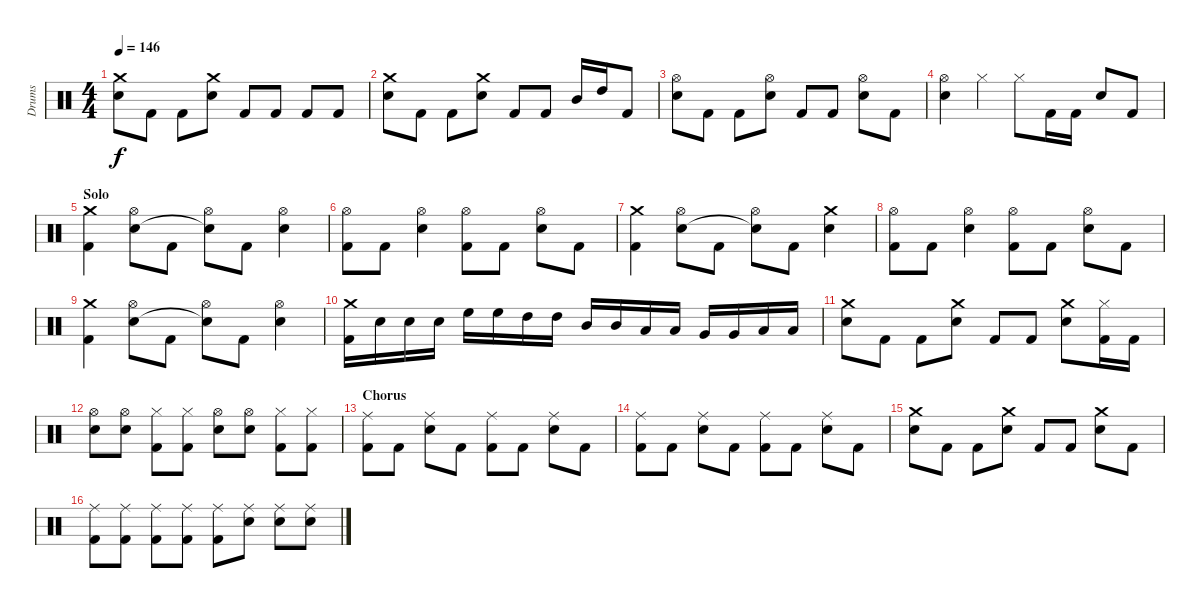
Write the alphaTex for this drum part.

\track ("Drums" "Drums") {instrument percussion}
\staff {score}
\articulation defaults
\ts (4 4)
\tempo 146
\clef neutral
\ks c
("Crash medium (hit)" "Electric Snare (hit)").8{dy f} "Kick (hit) 2".8 "Kick (hit) 2".8 ("Crash medium (hit)" "Electric Snare (hit)").8 "Kick (hit) 2".8 "Kick (hit) 2".8 "Kick (hit) 2".8 "Kick (hit) 2".8 |
("Crash medium (hit)" "Electric Snare (hit)").8 "Kick (hit) 2".8 "Kick (hit) 2".8 ("Crash medium (hit)" "Electric Snare (hit)").8 "Kick (hit) 2".8 "Kick (hit) 2".8 "Mid Tom (hit)".16 "High Tom (hit)".16 "Kick (hit) 2".8 |
("Hi-Hat (open)" "Electric Snare (hit)").8 "Kick (hit) 2".8 "Kick (hit) 2".8 ("Hi-Hat (open)" "Electric Snare (hit)").8 "Kick (hit) 2".8 "Kick (hit) 2".8 ("Hi-Hat (open)" "Electric Snare (hit)").8 "Kick (hit) 2".8 |
("Hi-Hat (open)" "Electric Snare (hit)").4 "Hi-Hat (closed)".4 "Hi-Hat (closed)".8 "Kick (hit) 2".16 "Kick (hit) 2".16 "Electric Snare (hit)".8 "Kick (hit) 2".8 |
\section ("" "Solo")
("Crash medium (hit)" "Kick (hit) 2").4 ("Hi-Hat (open)" "Electric Snare (hit)").8 "Kick (hit) 2".8 ("Hi-Hat (open)" "Snare (hit)"{t}).8 "Kick (hit) 2".8 ("Hi-Hat (open)" "Electric Snare (hit)").4 |
("Hi-Hat (open)" "Kick (hit) 2").8 "Kick (hit) 2".8 ("Hi-Hat (open)" "Electric Snare (hit)").4 ("Hi-Hat (open)" "Kick (hit) 2").8 "Kick (hit) 2".8 ("Hi-Hat (open)" "Electric Snare (hit)").8 "Kick (hit) 2".8 |
("Crash medium (hit)" "Kick (hit) 2").4 ("Hi-Hat (open)" "Electric Snare (hit)").8 "Kick (hit) 2".8 ("Hi-Hat (open)" "Snare (hit)"{t}).8 "Kick (hit) 2".8 ("Crash medium (hit)" "Electric Snare (hit)").4 |
("Hi-Hat (open)" "Kick (hit) 2").8 "Kick (hit) 2".8 ("Hi-Hat (open)" "Electric Snare (hit)").4 ("Hi-Hat (open)" "Kick (hit) 2").8 "Kick (hit) 2".8 ("Hi-Hat (open)" "Electric Snare (hit)").8 "Kick (hit) 2".8 |
("Crash medium (hit)" "Kick (hit) 2").4 ("Hi-Hat (open)" "Electric Snare (hit)").8 "Kick (hit) 2".8 ("Hi-Hat (open)" "Snare (hit)"{t}).8 "Kick (hit) 2".8 ("Hi-Hat (open)" "Electric Snare (hit)").4 |
("Crash medium (hit)" "Kick (hit) 2").16 "Electric Snare (hit)".16 "Electric Snare (hit)".16 "Electric Snare (hit)".16 "High Floor Tom (hit)".16 "High Floor Tom (hit)".16 "High Tom (hit)".16 "High Tom (hit)".16 "Mid Tom (hit)".16 "Mid Tom (hit)".16 "Low Tom (hit)".16 "Low Tom (hit)".16 "Very Low Tom (hit)".16 "Very Low Tom (hit)".16 "Low Floor Tom (hit)".16 "Low Floor Tom (hit)".16 |
("Crash medium (hit)" "Electric Snare (hit)").8 "Kick (hit) 2".8 "Kick (hit) 2".8 ("Crash medium (hit)" "Electric Snare (hit)").8 "Kick (hit) 2".8 "Kick (hit) 2".8 ("Crash medium (hit)" "Electric Snare (hit)").8 ("Hi-Hat (closed)" "Kick (hit) 2").16 "Kick (hit) 2".16 |
("Hi-Hat (open)" "Electric Snare (hit)").8 ("Hi-Hat (open)" "Electric Snare (hit)").8 ("Hi-Hat (closed)" "Kick (hit) 2").8 ("Hi-Hat (closed)" "Kick (hit) 2").8 ("Hi-Hat (open)" "Electric Snare (hit)").8 ("Hi-Hat (open)" "Electric Snare (hit)").8 ("Hi-Hat (closed)" "Kick (hit) 2").8 ("Hi-Hat (closed)" "Kick (hit) 2").8 |
\section ("" "Chorus")
("Ride (middle)" "Kick (hit) 2").8 "Kick (hit) 2".8 ("Ride (middle)" "Electric Snare (hit)").8 "Kick (hit) 2".8 ("Ride (middle)" "Kick (hit) 2").8 "Kick (hit) 2".8 ("Ride (middle)" "Electric Snare (hit)").8 "Kick (hit) 2".8 |
("Ride (middle)" "Kick (hit) 2").8 "Kick (hit) 2".8 ("Ride (middle)" "Electric Snare (hit)").8 "Kick (hit) 2".8 ("Ride (middle)" "Kick (hit) 2").8 "Kick (hit) 2".8 ("Ride (middle)" "Electric Snare (hit)").8 "Kick (hit) 2".8 |
("Crash medium (hit)" "Electric Snare (hit)").8 "Kick (hit) 2".8 "Kick (hit) 2".8 ("Crash medium (hit)" "Electric Snare (hit)").8 "Kick (hit) 2".8 "Kick (hit) 2".8 ("Crash medium (hit)" "Electric Snare (hit)").8 "Kick (hit) 2".8 |
("Ride (middle)" "Kick (hit) 2").8 ("Ride (middle)" "Kick (hit) 2").8 ("Ride (middle)" "Kick (hit) 2").8 ("Ride (middle)" "Kick (hit) 2").8 ("Ride (middle)" "Kick (hit) 2").8 ("Ride (middle)" "Electric Snare (hit)").8 ("Ride (middle)" "Electric Snare (hit)").8 ("Ride (middle)" "Electric Snare (hit)").8
